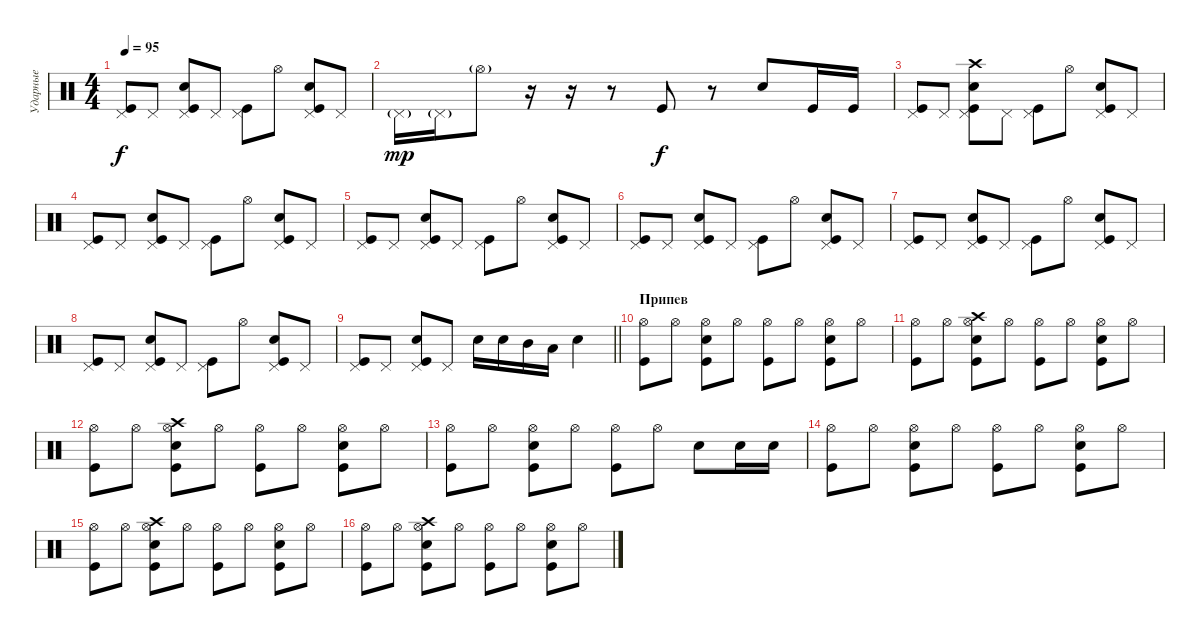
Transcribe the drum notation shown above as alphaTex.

\track ("Ударные" "Ударные") {instrument percussion}
\staff {score}
\articulation defaults
\ts (4 4)
\tempo 95
\clef neutral
\ks c
("Pedal Hi-Hat (hit)" "Kick (hit)").8{dy f} "Pedal Hi-Hat (hit)".8 ("Electric Snare (hit)" "Pedal Hi-Hat (hit)" "Kick (hit)").8 "Pedal Hi-Hat (hit)".8 ("Pedal Hi-Hat (hit)" "Kick (hit)").8 "Hi-Hat (open)".8 ("Electric Snare (hit)" "Pedal Hi-Hat (hit)" "Kick (hit)").8 "Pedal Hi-Hat (hit)".8 |
"Pedal Hi-Hat (hit)"{g}.16{dy mp} "Pedal Hi-Hat (hit)"{g}.16 "Hi-Hat (open)"{g}.8 r.16 r.16 r.8 "Kick (hit)".8{dy f} r.8 "Electric Snare (hit)".8 "Kick (hit)".16 "Kick (hit)".16 |
("Pedal Hi-Hat (hit)" "Kick (hit)").8 "Pedal Hi-Hat (hit)".8 ("Electric Snare (hit)" "Crash high (hit)" "Pedal Hi-Hat (hit)" "Kick (hit)").8 "Pedal Hi-Hat (hit)".8 ("Pedal Hi-Hat (hit)" "Kick (hit)").8 "Hi-Hat (open)".8 ("Electric Snare (hit)" "Pedal Hi-Hat (hit)" "Kick (hit)").8 "Pedal Hi-Hat (hit)".8 |
("Pedal Hi-Hat (hit)" "Kick (hit)").8 "Pedal Hi-Hat (hit)".8 ("Electric Snare (hit)" "Pedal Hi-Hat (hit)" "Kick (hit)").8 "Pedal Hi-Hat (hit)".8 ("Pedal Hi-Hat (hit)" "Kick (hit)").8 "Hi-Hat (open)".8 ("Electric Snare (hit)" "Pedal Hi-Hat (hit)" "Kick (hit)").8 "Pedal Hi-Hat (hit)".8 |
("Pedal Hi-Hat (hit)" "Kick (hit)").8 "Pedal Hi-Hat (hit)".8 ("Electric Snare (hit)" "Pedal Hi-Hat (hit)" "Kick (hit)").8 "Pedal Hi-Hat (hit)".8 ("Pedal Hi-Hat (hit)" "Kick (hit)").8 "Hi-Hat (open)".8 ("Electric Snare (hit)" "Pedal Hi-Hat (hit)" "Kick (hit)").8 "Pedal Hi-Hat (hit)".8 |
("Pedal Hi-Hat (hit)" "Kick (hit)").8 "Pedal Hi-Hat (hit)".8 ("Electric Snare (hit)" "Pedal Hi-Hat (hit)" "Kick (hit)").8 "Pedal Hi-Hat (hit)".8 ("Pedal Hi-Hat (hit)" "Kick (hit)").8 "Hi-Hat (open)".8 ("Electric Snare (hit)" "Pedal Hi-Hat (hit)" "Kick (hit)").8 "Pedal Hi-Hat (hit)".8 |
("Pedal Hi-Hat (hit)" "Kick (hit)").8 "Pedal Hi-Hat (hit)".8 ("Electric Snare (hit)" "Pedal Hi-Hat (hit)" "Kick (hit)").8 "Pedal Hi-Hat (hit)".8 ("Pedal Hi-Hat (hit)" "Kick (hit)").8 "Hi-Hat (open)".8 ("Electric Snare (hit)" "Pedal Hi-Hat (hit)" "Kick (hit)").8 "Pedal Hi-Hat (hit)".8 |
("Pedal Hi-Hat (hit)" "Kick (hit)").8 "Pedal Hi-Hat (hit)".8 ("Electric Snare (hit)" "Pedal Hi-Hat (hit)" "Kick (hit)").8 "Pedal Hi-Hat (hit)".8 ("Pedal Hi-Hat (hit)" "Kick (hit)").8 "Hi-Hat (open)".8 ("Electric Snare (hit)" "Pedal Hi-Hat (hit)" "Kick (hit)").8 "Pedal Hi-Hat (hit)".8 |
\barLineRight lightlight
("Pedal Hi-Hat (hit)" "Kick (hit)").8 "Pedal Hi-Hat (hit)".8 ("Electric Snare (hit)" "Pedal Hi-Hat (hit)" "Kick (hit)").8 "Pedal Hi-Hat (hit)".8 "Electric Snare (hit)".16 "Electric Snare (hit)".16 "Mid Tom (hit)".16 "Low Tom (hit)".16 "Snare (hit) 2".4 |
\section ("" "Припев ")
("Hi-Hat (open)" "Kick (hit)").8 "Hi-Hat (open)".8 ("Electric Snare (hit)" "Hi-Hat (open)" "Kick (hit)").8 "Hi-Hat (open)".8 ("Hi-Hat (open)" "Kick (hit)").8 "Hi-Hat (open)".8 ("Electric Snare (hit)" "Hi-Hat (open)" "Kick (hit)").8 "Hi-Hat (open)".8 |
("Hi-Hat (open)" "Kick (hit)").8 "Hi-Hat (open)".8 ("Electric Snare (hit)" "Crash high (hit)" "Hi-Hat (open)" "Kick (hit)").8 "Hi-Hat (open)".8 ("Hi-Hat (open)" "Kick (hit)").8 "Hi-Hat (open)".8 ("Electric Snare (hit)" "Hi-Hat (open)" "Kick (hit)").8 "Hi-Hat (open)".8 |
("Hi-Hat (open)" "Kick (hit)").8 "Hi-Hat (open)".8 ("Electric Snare (hit)" "Crash high (hit)" "Hi-Hat (open)" "Kick (hit)").8 "Hi-Hat (open)".8 ("Hi-Hat (open)" "Kick (hit)").8 "Hi-Hat (open)".8 ("Electric Snare (hit)" "Hi-Hat (open)" "Kick (hit)").8 "Hi-Hat (open)".8 |
("Hi-Hat (open)" "Kick (hit)").8 "Hi-Hat (open)".8 ("Electric Snare (hit)" "Hi-Hat (open)" "Kick (hit)").8 "Hi-Hat (open)".8 ("Hi-Hat (open)" "Kick (hit)").8 "Hi-Hat (open)".8 "Electric Snare (hit)".8 "Electric Snare (hit)".16 "Electric Snare (hit)".16 |
("Hi-Hat (open)" "Kick (hit)").8 "Hi-Hat (open)".8 ("Electric Snare (hit)" "Hi-Hat (open)" "Kick (hit)").8 "Hi-Hat (open)".8 ("Hi-Hat (open)" "Kick (hit)").8 "Hi-Hat (open)".8 ("Electric Snare (hit)" "Hi-Hat (open)" "Kick (hit)").8 "Hi-Hat (open)".8 |
("Hi-Hat (open)" "Kick (hit)").8 "Hi-Hat (open)".8 ("Electric Snare (hit)" "Crash high (hit)" "Hi-Hat (open)" "Kick (hit)").8 "Hi-Hat (open)".8 ("Hi-Hat (open)" "Kick (hit)").8 "Hi-Hat (open)".8 ("Electric Snare (hit)" "Hi-Hat (open)" "Kick (hit)").8 "Hi-Hat (open)".8 |
("Hi-Hat (open)" "Kick (hit)").8 "Hi-Hat (open)".8 ("Electric Snare (hit)" "Crash high (hit)" "Hi-Hat (open)" "Kick (hit)").8 "Hi-Hat (open)".8 ("Hi-Hat (open)" "Kick (hit)").8 "Hi-Hat (open)".8 ("Electric Snare (hit)" "Hi-Hat (open)" "Kick (hit)").8 "Hi-Hat (open)".8
